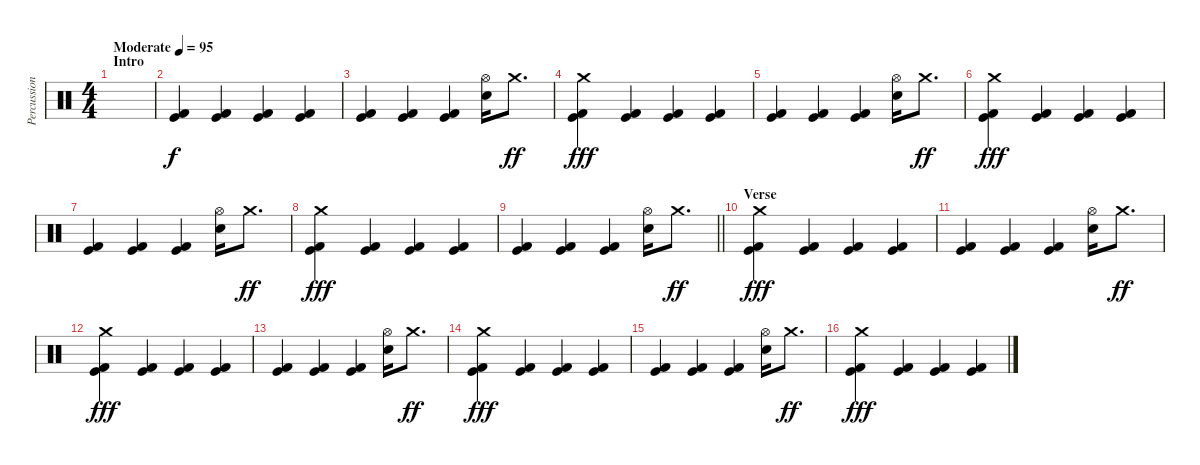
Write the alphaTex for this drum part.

\track ("Percussion" "Percussion") {instrument percussion}
\staff {score}
\articulation defaults
\ts (4 4)
\section ("" "Intro")
\tempo (95 "Moderate")
\clef neutral
\ks c
|
("Kick (hit)" "Kick (hit) 2").4 ("Kick (hit)" "Kick (hit) 2").4 ("Kick (hit)" "Kick (hit) 2").4 ("Kick (hit)" "Kick (hit) 2").4 |
("Kick (hit)" "Kick (hit) 2").4 ("Kick (hit)" "Kick (hit) 2").4 ("Kick (hit)" "Kick (hit) 2").4 ("Hi-Hat (open)" "Snare (hit) 2").16 "Crash medium (hit)".8{d dy ff} |
("Crash medium (hit)" "Kick (hit)" "Kick (hit) 2").4{dy fff} ("Kick (hit)" "Kick (hit) 2").4 ("Kick (hit)" "Kick (hit) 2").4 ("Kick (hit)" "Kick (hit) 2").4 |
("Kick (hit)" "Kick (hit) 2").4 ("Kick (hit)" "Kick (hit) 2").4 ("Kick (hit)" "Kick (hit) 2").4 ("Hi-Hat (open)" "Snare (hit) 2").16 "Crash medium (hit)".8{d dy ff} |
("Crash medium (hit)" "Kick (hit)" "Kick (hit) 2").4{dy fff} ("Kick (hit)" "Kick (hit) 2").4 ("Kick (hit)" "Kick (hit) 2").4 ("Kick (hit)" "Kick (hit) 2").4 |
("Kick (hit)" "Kick (hit) 2").4 ("Kick (hit)" "Kick (hit) 2").4 ("Kick (hit)" "Kick (hit) 2").4 ("Hi-Hat (open)" "Snare (hit) 2").16 "Crash medium (hit)".8{d dy ff} |
("Crash medium (hit)" "Kick (hit)" "Kick (hit) 2").4{dy fff} ("Kick (hit)" "Kick (hit) 2").4 ("Kick (hit)" "Kick (hit) 2").4 ("Kick (hit)" "Kick (hit) 2").4 |
\barLineRight lightlight
("Kick (hit)" "Kick (hit) 2").4 ("Kick (hit)" "Kick (hit) 2").4 ("Kick (hit)" "Kick (hit) 2").4 ("Hi-Hat (open)" "Snare (hit) 2").16 "Crash medium (hit)".8{d dy ff} |
\section ("" "Verse")
("Crash medium (hit)" "Kick (hit)" "Kick (hit) 2").4{dy fff} ("Kick (hit)" "Kick (hit) 2").4 ("Kick (hit)" "Kick (hit) 2").4 ("Kick (hit)" "Kick (hit) 2").4 |
("Kick (hit)" "Kick (hit) 2").4 ("Kick (hit)" "Kick (hit) 2").4 ("Kick (hit)" "Kick (hit) 2").4 ("Hi-Hat (open)" "Snare (hit) 2").16 "Crash medium (hit)".8{d dy ff} |
("Crash medium (hit)" "Kick (hit)" "Kick (hit) 2").4{dy fff} ("Kick (hit)" "Kick (hit) 2").4 ("Kick (hit)" "Kick (hit) 2").4 ("Kick (hit)" "Kick (hit) 2").4 |
("Kick (hit)" "Kick (hit) 2").4 ("Kick (hit)" "Kick (hit) 2").4 ("Kick (hit)" "Kick (hit) 2").4 ("Hi-Hat (open)" "Snare (hit) 2").16 "Crash medium (hit)".8{d dy ff} |
("Crash medium (hit)" "Kick (hit)" "Kick (hit) 2").4{dy fff} ("Kick (hit)" "Kick (hit) 2").4 ("Kick (hit)" "Kick (hit) 2").4 ("Kick (hit)" "Kick (hit) 2").4 |
("Kick (hit)" "Kick (hit) 2").4 ("Kick (hit)" "Kick (hit) 2").4 ("Kick (hit)" "Kick (hit) 2").4 ("Hi-Hat (open)" "Snare (hit) 2").16 "Crash medium (hit)".8{d dy ff} |
("Crash medium (hit)" "Kick (hit)" "Kick (hit) 2").4{dy fff} ("Kick (hit)" "Kick (hit) 2").4 ("Kick (hit)" "Kick (hit) 2").4 ("Kick (hit)" "Kick (hit) 2").4
